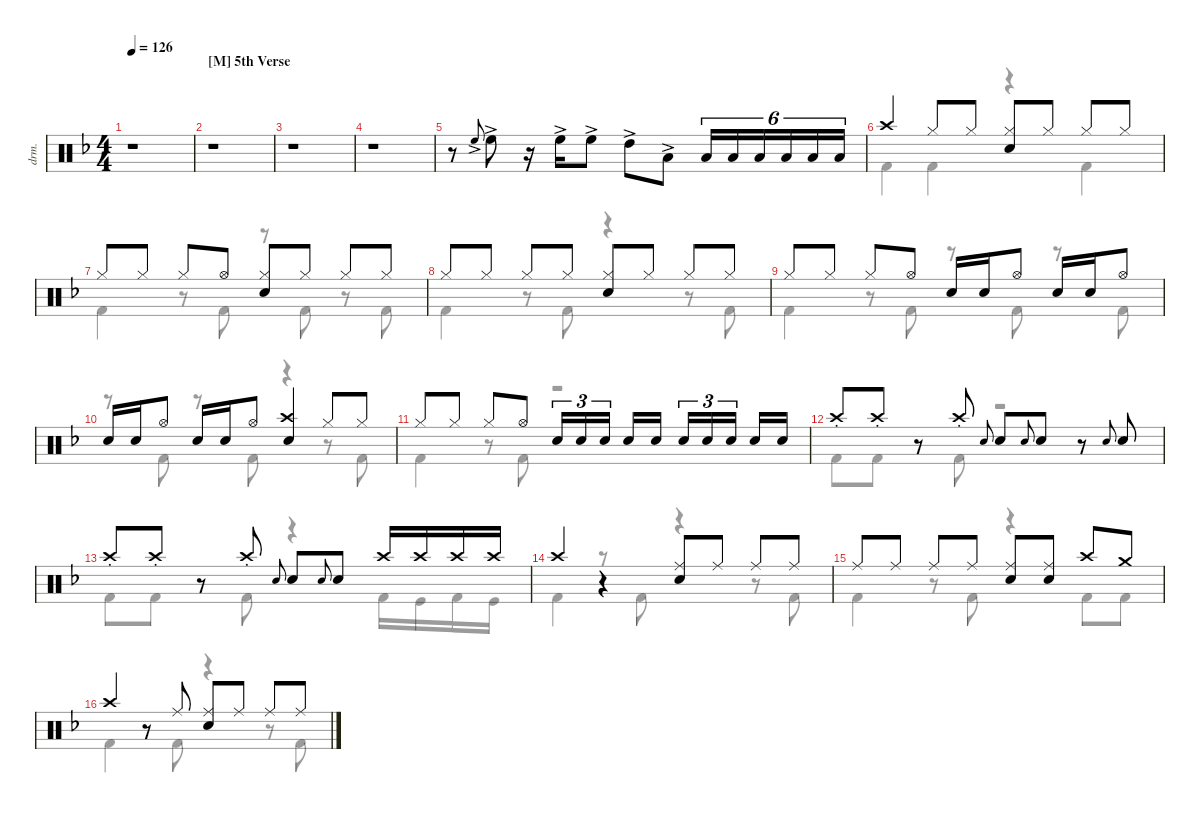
\defaultSystemsLayout 4
\hideDynamics
\bracketExtendMode nobrackets
\track ("Drums" "drm.") {instrument percussion}
\staff {score}
\articulation defaults
\voice
\ts (4 4)
\tempo 126
\clef neutral
\ks f
r.1{dy mf} |
\section ("M" "5th Verse")
r.1 |
r.1 |
r.1 |
r.8 "High Floor Tom (hit)"{ac acc forcenatural}.8{gr onbeat} "High Floor Tom (hit)"{ac acc forcenatural}.8 r.16 "High Floor Tom (hit)"{ac acc forcenatural}.16 "High Floor Tom (hit)"{ac acc forcenatural}.8 "High Tom (hit)"{ac acc forcenatural}.8 "Low Tom (hit)"{ac acc forcenatural}.8 "Low Tom (hit)"{acc forcenatural}.16{tu (6 4)} "Low Tom (hit)"{acc forcenatural}.16{tu (6 4)} "Low Tom (hit)"{acc forcenatural}.16{tu (6 4)} "Low Tom (hit)"{acc forcenatural}.16{tu (6 4)} "Low Tom (hit)"{acc forcenatural}.16{tu (6 4)} "Low Tom (hit)"{acc forcenatural}.16{tu (6 4)} |
"Crash high (hit)"{acc forcenatural}.4 "Hi-Hat (closed)"{acc forcenatural}.8 "Hi-Hat (closed)"{acc forcenatural}.8 ("Hi-Hat (closed)"{acc forcenatural} "Snare (hit) 2"{acc forcenatural}).8 "Hi-Hat (closed)"{acc forcenatural}.8 "Hi-Hat (closed)"{acc forcenatural}.8 "Hi-Hat (closed)"{acc forcenatural}.8 |
"Hi-Hat (closed)"{acc forcenatural}.8 "Hi-Hat (closed)"{acc forcenatural}.8 "Hi-Hat (closed)"{acc forcenatural}.8 "Hi-Hat (open)"{acc forcenatural}.8 ("Hi-Hat (closed)"{acc forcenatural} "Snare (hit) 2"{acc forcenatural}).8 "Hi-Hat (closed)"{acc forcenatural}.8 "Hi-Hat (closed)"{acc forcenatural}.8 "Hi-Hat (closed)"{acc forcenatural}.8 |
"Hi-Hat (closed)"{acc forcenatural}.8 "Hi-Hat (closed)"{acc forcenatural}.8 "Hi-Hat (closed)"{acc forcenatural}.8 "Hi-Hat (closed)"{acc forcenatural}.8 ("Hi-Hat (closed)"{acc forcenatural} "Snare (hit) 2"{acc forcenatural}).8 "Hi-Hat (closed)"{acc forcenatural}.8 "Hi-Hat (closed)"{acc forcenatural}.8 "Hi-Hat (closed)"{acc forcenatural}.8 |
"Hi-Hat (closed)"{acc forcenatural}.8 "Hi-Hat (closed)"{acc forcenatural}.8 "Hi-Hat (closed)"{acc forcenatural}.8 "Hi-Hat (open)"{acc forcenatural}.8 "Snare (hit) 2"{acc forcenatural}.16 "Snare (hit) 2"{acc forcenatural}.16 "Hi-Hat (open)"{acc forcenatural}.8 "Snare (hit) 2"{acc forcenatural}.16 "Snare (hit) 2"{acc forcenatural}.16 "Hi-Hat (open)"{acc forcenatural}.8 |
"Snare (hit) 2"{acc forcenatural}.16 "Snare (hit) 2"{acc forcenatural}.16 "Hi-Hat (open)"{acc forcenatural}.8 "Snare (hit) 2"{acc forcenatural}.16 "Snare (hit) 2"{acc forcenatural}.16 "Hi-Hat (open)"{acc forcenatural}.8 ("Crash high (hit)"{acc forcenatural} "Snare (hit) 2"{acc forcenatural}).4 "Hi-Hat (closed)"{acc forcenatural}.8 "Hi-Hat (closed)"{acc forcenatural}.8 |
"Hi-Hat (closed)"{acc forcenatural}.8 "Hi-Hat (closed)"{acc forcenatural}.8 "Hi-Hat (closed)"{acc forcenatural}.8 "Hi-Hat (open)"{acc forcenatural}.8 "Snare (hit) 2"{acc forcenatural}.16{tu (3 2)} "Snare (hit) 2"{acc forcenatural}.16{tu (3 2)} "Snare (hit) 2"{acc forcenatural}.16{tu (3 2) beam splitsecondary} "Snare (hit) 2"{acc forcenatural}.16 "Snare (hit) 2"{acc forcenatural}.16 "Snare (hit) 2"{acc forcenatural}.16{tu (3 2)} "Snare (hit) 2"{acc forcenatural}.16{tu (3 2)} "Snare (hit) 2"{acc forcenatural}.16{tu (3 2) beam splitsecondary} "Snare (hit) 2"{acc forcenatural}.16 "Snare (hit) 2"{acc forcenatural}.16 |
"Crash high (hit)"{st acc forcenatural}.8 "Crash high (hit)"{st acc forcenatural}.8 r.8 "Crash high (hit)"{st acc forcenatural}.8 "Snare (hit) 2"{acc forcenatural}.8{gr onbeat} "Snare (hit) 2"{acc forcenatural}.8 "Snare (hit) 2"{acc forcenatural}.8{gr onbeat} "Snare (hit) 2"{acc forcenatural}.8 r.8 "Snare (hit) 2"{acc forcenatural}.8{gr onbeat} "Snare (hit) 2"{acc forcenatural}.8 |
"Crash high (hit)"{st acc forcenatural}.8 "Crash high (hit)"{st acc forcenatural}.8 r.8 "Crash high (hit)"{st acc forcenatural}.8 "Snare (hit) 2"{acc forcenatural}.8{gr onbeat} "Snare (hit) 2"{acc forcenatural}.8 "Snare (hit) 2"{acc forcenatural}.8{gr onbeat} "Snare (hit) 2"{acc forcenatural}.8 "Crash high (hit)"{acc forcenatural}.16 "Crash high (hit)"{acc forcenatural}.16 "Crash high (hit)"{acc forcenatural}.16 "Crash high (hit)"{acc forcenatural}.16 |
"Crash high (hit)"{acc forcenatural}.4 r.4 ("Ride (middle)"{acc forcenatural} "Snare (hit) 2"{acc forcenatural}).8 "Ride (middle)"{acc forcenatural}.8 "Ride (middle)"{acc forcenatural}.8 "Ride (middle)"{acc forcenatural}.8 |
"Ride (middle)"{acc forcenatural}.8 "Ride (middle)"{acc forcenatural}.8 "Ride (middle)"{acc forcenatural}.8 "Ride (middle)"{acc forcenatural}.8 ("Ride (middle)"{acc forcenatural} "Snare (hit) 2"{acc forcenatural}).8 ("Ride (middle)"{acc forcenatural} "Snare (hit) 2"{acc forcenatural}).8 "Crash high (hit)"{acc forcenatural}.8 "Crash medium (hit)"{acc forcenatural}.8 |
"Crash high (hit)"{acc forcenatural}.4 r.8 "Ride (middle)"{acc forcenatural}.8 ("Ride (middle)"{acc forcenatural} "Snare (hit) 2"{acc forcenatural}).8 "Ride (middle)"{acc forcenatural}.8 "Ride (middle)"{acc forcenatural}.8 "Ride (middle)"{acc forcenatural}.8
\voice
\clef neutral
\ottava regular
\simile none
\ks f
|
|
|
|
|
"Kick (hit) 2"{acc forcenatural}.4 "Kick (hit) 2"{acc forcenatural}.4 r.4 "Kick (hit) 2"{acc forcenatural}.4 |
"Kick (hit) 2"{acc forcenatural}.4 r.8 "Kick (hit) 2"{acc forcenatural}.8 r.8 "Kick (hit) 2"{acc forcenatural}.8 r.8 "Kick (hit) 2"{acc forcenatural}.8 |
"Kick (hit) 2"{acc forcenatural}.4 r.8 "Kick (hit) 2"{acc forcenatural}.8 r.4 r.8 "Kick (hit) 2"{acc forcenatural}.8 |
"Kick (hit) 2"{acc forcenatural}.4 r.8 "Kick (hit) 2"{acc forcenatural}.8 r.8 "Kick (hit) 2"{acc forcenatural}.8 r.8 "Kick (hit) 2"{acc forcenatural}.8 |
r.8 "Kick (hit) 2"{acc forcenatural}.8 r.8 "Kick (hit) 2"{acc forcenatural}.8 r.4 r.8 "Kick (hit) 2"{acc forcenatural}.8 |
"Kick (hit) 2"{acc forcenatural}.4 r.8 "Kick (hit) 2"{acc forcenatural}.8 r.2 |
"Kick (hit) 2"{acc forcenatural}.8 "Kick (hit) 2"{acc forcenatural}.8 r.8 "Kick (hit) 2"{acc forcenatural}.8 r.2 |
"Kick (hit) 2"{acc forcenatural}.8 "Kick (hit) 2"{acc forcenatural}.8 r.8 "Kick (hit) 2"{acc forcenatural}.8 r.4 "Kick (hit) 2"{acc forcenatural}.16 "Kick (hit)"{acc forcenatural}.16 "Kick (hit) 2"{acc forcenatural}.16 "Kick (hit)"{acc forcenatural}.16 |
"Kick (hit) 2"{acc forcenatural}.4 r.8 "Kick (hit) 2"{acc forcenatural}.8 r.4 r.8 "Kick (hit) 2"{acc forcenatural}.8 |
"Kick (hit) 2"{acc forcenatural}.4 r.8 "Kick (hit) 2"{acc forcenatural}.8 r.4 "Kick (hit) 2"{acc forcenatural}.8 "Kick (hit) 2"{acc forcenatural}.8 |
"Kick (hit) 2"{acc forcenatural}.4 r.8 "Kick (hit) 2"{acc forcenatural}.8 r.4 r.8 "Kick (hit) 2"{acc forcenatural}.8
